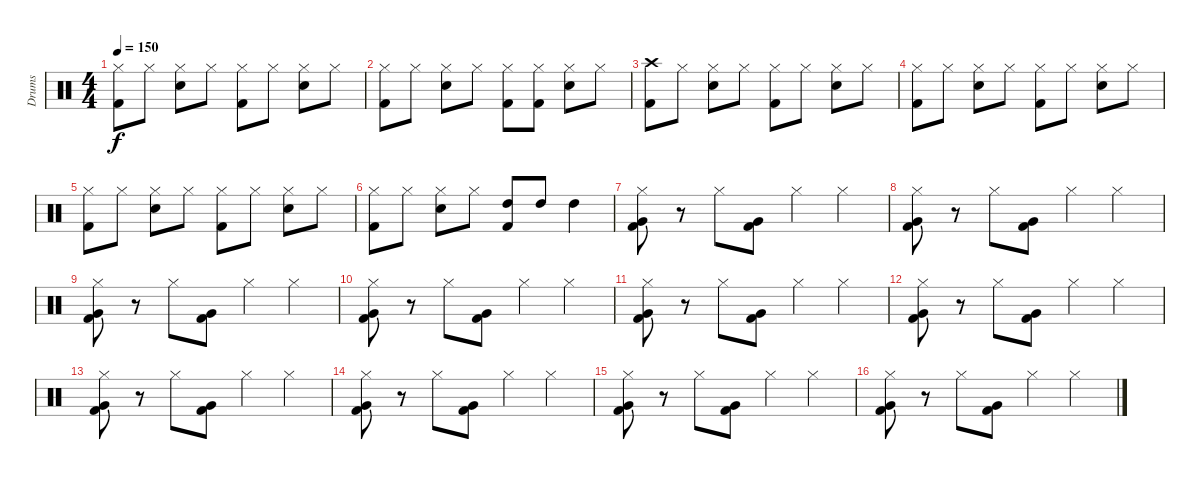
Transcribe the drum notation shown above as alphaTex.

\track ("Drums" "Drums") {instrument percussion}
\staff {score}
\articulation defaults
\ts (4 4)
\tempo 150
\clef neutral
\ks c
("Hi-Hat (closed)" "Kick (hit) 2").8{dy f} "Hi-Hat (closed)".8 ("Hi-Hat (closed)" "Electric Snare (hit)").8 "Hi-Hat (closed)".8 ("Hi-Hat (closed)" "Kick (hit) 2").8 "Hi-Hat (closed)".8 ("Hi-Hat (closed)" "Electric Snare (hit)").8 "Hi-Hat (closed)".8 |
("Hi-Hat (closed)" "Kick (hit) 2").8 "Hi-Hat (closed)".8 ("Hi-Hat (closed)" "Electric Snare (hit)").8 "Hi-Hat (closed)".8 ("Hi-Hat (closed)" "Kick (hit) 2").8 ("Hi-Hat (closed)" "Kick (hit) 2").8 ("Hi-Hat (closed)" "Electric Snare (hit)").8 "Hi-Hat (closed)".8 |
("Crash high (hit)" "Kick (hit) 2").8 "Hi-Hat (closed)".8 ("Hi-Hat (closed)" "Electric Snare (hit)").8 "Hi-Hat (closed)".8 ("Hi-Hat (closed)" "Kick (hit) 2").8 "Hi-Hat (closed)".8 ("Hi-Hat (closed)" "Electric Snare (hit)").8 "Hi-Hat (closed)".8 |
("Hi-Hat (closed)" "Kick (hit) 2").8 "Hi-Hat (closed)".8 ("Hi-Hat (closed)" "Electric Snare (hit)").8 "Hi-Hat (closed)".8 ("Hi-Hat (closed)" "Kick (hit) 2").8 "Hi-Hat (closed)".8 ("Hi-Hat (closed)" "Electric Snare (hit)").8 "Hi-Hat (closed)".8 |
("Hi-Hat (closed)" "Kick (hit) 2").8 "Hi-Hat (closed)".8 ("Hi-Hat (closed)" "Electric Snare (hit)").8 "Hi-Hat (closed)".8 ("Hi-Hat (closed)" "Kick (hit) 2").8 "Hi-Hat (closed)".8 ("Hi-Hat (closed)" "Electric Snare (hit)").8 "Hi-Hat (closed)".8 |
("Hi-Hat (closed)" "Kick (hit) 2").8 "Hi-Hat (closed)".8 ("Hi-Hat (closed)" "Electric Snare (hit)").8 "Hi-Hat (closed)".8 ("High Tom (hit)" "Kick (hit) 2").8 "High Tom (hit)".8 "High Tom (hit)".4 |
("Hi-Hat (closed)" "Very Low Tom (hit)" "Kick (hit) 2").8 r.8 "Hi-Hat (closed)".8 ("Very Low Tom (hit)" "Kick (hit) 2").8 "Hi-Hat (closed)".4 "Hi-Hat (closed)".4 |
("Hi-Hat (closed)" "Very Low Tom (hit)" "Kick (hit) 2").8 r.8 "Hi-Hat (closed)".8 ("Very Low Tom (hit)" "Kick (hit) 2").8 "Hi-Hat (closed)".4 "Hi-Hat (closed)".4 |
("Hi-Hat (closed)" "Very Low Tom (hit)" "Kick (hit) 2").8 r.8 "Hi-Hat (closed)".8 ("Very Low Tom (hit)" "Kick (hit) 2").8 "Hi-Hat (closed)".4 "Hi-Hat (closed)".4 |
("Hi-Hat (closed)" "Very Low Tom (hit)" "Kick (hit) 2").8 r.8 "Hi-Hat (closed)".8 ("Very Low Tom (hit)" "Kick (hit) 2").8 "Hi-Hat (closed)".4 "Hi-Hat (closed)".4 |
("Hi-Hat (closed)" "Very Low Tom (hit)" "Kick (hit) 2").8 r.8 "Hi-Hat (closed)".8 ("Very Low Tom (hit)" "Kick (hit) 2").8 "Hi-Hat (closed)".4 "Hi-Hat (closed)".4 |
("Hi-Hat (closed)" "Very Low Tom (hit)" "Kick (hit) 2").8 r.8 "Hi-Hat (closed)".8 ("Very Low Tom (hit)" "Kick (hit) 2").8 "Hi-Hat (closed)".4 "Hi-Hat (closed)".4 |
("Hi-Hat (closed)" "Very Low Tom (hit)" "Kick (hit) 2").8 r.8 "Hi-Hat (closed)".8 ("Very Low Tom (hit)" "Kick (hit) 2").8 "Hi-Hat (closed)".4 "Hi-Hat (closed)".4 |
("Hi-Hat (closed)" "Very Low Tom (hit)" "Kick (hit) 2").8 r.8 "Hi-Hat (closed)".8 ("Very Low Tom (hit)" "Kick (hit) 2").8 "Hi-Hat (closed)".4 "Hi-Hat (closed)".4 |
("Hi-Hat (closed)" "Very Low Tom (hit)" "Kick (hit) 2").8 r.8 "Hi-Hat (closed)".8 ("Very Low Tom (hit)" "Kick (hit) 2").8 "Hi-Hat (closed)".4 "Hi-Hat (closed)".4 |
("Hi-Hat (closed)" "Very Low Tom (hit)" "Kick (hit) 2").8 r.8 "Hi-Hat (closed)".8 ("Very Low Tom (hit)" "Kick (hit) 2").8 "Hi-Hat (closed)".4 "Hi-Hat (closed)".4
